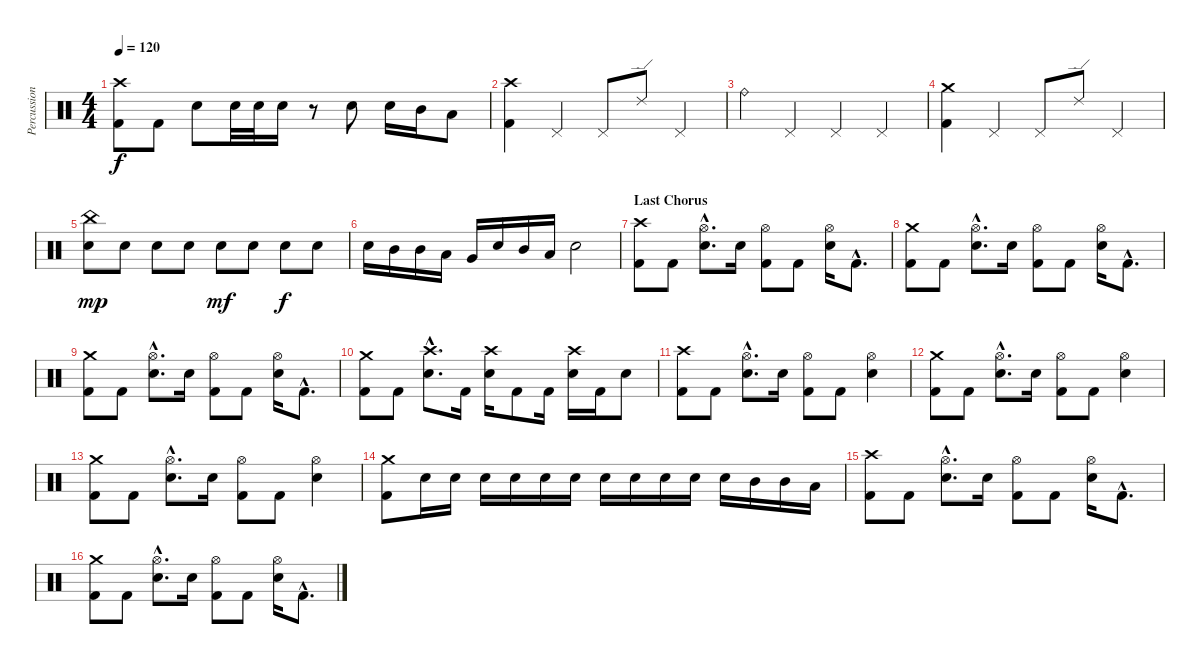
\track ("Percussion" "Percussion") {instrument percussion}
\staff {score}
\articulation defaults
\ts (4 4)
\tempo 120
\clef neutral
\ks c
("Crash high (hit)" "Kick (hit) 2").8{dy f} "Kick (hit) 2".8 "Snare (hit) 2".8 "Snare (hit) 2".32 "Snare (hit) 2".32 "Snare (hit) 2".16 r.8 "Snare (hit) 2".8 "Snare (hit) 2".16 "Mid Tom (hit)".16 "Low Tom (hit)".8 |
("Crash high (hit)" "Kick (hit) 2").4 "Pedal Hi-Hat (hit)".4 "Pedal Hi-Hat (hit)".8 "Ride (edge) 2".8 "Pedal Hi-Hat (hit)".4 |
"Ride (bell)".4 "Pedal Hi-Hat (hit)".4 "Pedal Hi-Hat (hit)".4 "Pedal Hi-Hat (hit)".4 |
("Crash medium (hit)" "Kick (hit) 2").4 "Pedal Hi-Hat (hit)".4 "Pedal Hi-Hat (hit)".8 "Ride (edge) 2".8 "Pedal Hi-Hat (hit)".4 |
("China (hit)" "Snare (hit) 2").8{dy mp} "Snare (hit) 2".8 "Snare (hit) 2".8 "Snare (hit) 2".8 "Snare (hit) 2".8{dy mf} "Snare (hit) 2".8 "Snare (hit) 2".8{dy f} "Snare (hit) 2".8 |
"Snare (hit) 2".16 "Mid Tom (hit)".16 "Mid Tom (hit)".16 "Low Tom (hit)".16 "Very Low Tom (hit)".16 "Snare (hit) 2".16 "Mid Tom (hit)".16 "Low Tom (hit)".16 "Snare (hit) 2".2 |
\section ("" "Last Chorus")
("Crash high (hit)" "Kick (hit) 2").8 "Kick (hit) 2".8 ("Hi-Hat (open)"{hac} "Snare (hit) 2"{hac}).8{d} "Snare (hit) 2".16 ("Hi-Hat (open)" "Kick (hit) 2").8 "Kick (hit) 2".8 ("Hi-Hat (open)" "Snare (hit) 2").16 "Kick (hit) 2"{hac}.8{d} |
("Crash medium (hit)" "Kick (hit) 2").8 "Kick (hit) 2".8 ("Hi-Hat (open)"{hac} "Snare (hit) 2"{hac}).8{d} "Snare (hit) 2".16 ("Hi-Hat (open)" "Kick (hit) 2").8 "Kick (hit) 2".8 ("Hi-Hat (open)" "Snare (hit) 2").16 "Kick (hit) 2"{hac}.8{d} |
("Crash medium (hit)" "Kick (hit) 2").8 "Kick (hit) 2".8 ("Hi-Hat (open)"{hac} "Snare (hit) 2"{hac}).8{d} "Snare (hit) 2".16 ("Hi-Hat (open)" "Kick (hit) 2").8 "Kick (hit) 2".8 ("Hi-Hat (open)" "Snare (hit) 2").16 "Kick (hit) 2"{hac}.8{d} |
("Crash medium (hit)" "Kick (hit) 2").8 "Kick (hit) 2".8 ("Crash high (hit)"{hac} "Snare (hit) 2"{hac}).8{d} "Kick (hit) 2".16 ("Crash high (hit)" "Snare (hit) 2").16 "Kick (hit) 2".8 "Kick (hit) 2".16 ("Crash high (hit)" "Snare (hit) 2").16 "Kick (hit) 2".16 "Snare (hit) 2".8 |
("Crash high (hit)" "Kick (hit) 2").8 "Kick (hit) 2".8 ("Hi-Hat (open)"{hac} "Snare (hit) 2"{hac}).8{d} "Snare (hit) 2".16 ("Hi-Hat (open)" "Kick (hit) 2").8 "Kick (hit) 2".8 ("Hi-Hat (open)" "Snare (hit) 2").4 |
("Crash medium (hit)" "Kick (hit) 2").8 "Kick (hit) 2".8 ("Hi-Hat (open)"{hac} "Snare (hit) 2"{hac}).8{d} "Snare (hit) 2".16 ("Hi-Hat (open)" "Kick (hit) 2").8 "Kick (hit) 2".8 ("Hi-Hat (open)" "Snare (hit) 2").4 |
("Crash medium (hit)" "Kick (hit) 2").8 "Kick (hit) 2".8 ("Hi-Hat (open)"{hac} "Snare (hit) 2"{hac}).8{d} "Snare (hit) 2".16 ("Hi-Hat (open)" "Kick (hit) 2").8 "Kick (hit) 2".8 ("Hi-Hat (open)" "Snare (hit) 2").4 |
("Crash medium (hit)" "Kick (hit) 2").8 "Snare (hit) 2".16 "Snare (hit) 2".16 "Snare (hit) 2".16 "Snare (hit) 2".16 "Snare (hit) 2".16 "Snare (hit) 2".16 "Snare (hit) 2".16 "Snare (hit) 2".16 "Snare (hit) 2".16 "Snare (hit) 2".16 "Snare (hit) 2".16 "Mid Tom (hit)".16 "Mid Tom (hit)".16 "Low Tom (hit)".16 |
("Crash high (hit)" "Kick (hit) 2").8 "Kick (hit) 2".8 ("Hi-Hat (open)"{hac} "Snare (hit) 2"{hac}).8{d} "Snare (hit) 2".16 ("Hi-Hat (open)" "Kick (hit) 2").8 "Kick (hit) 2".8 ("Hi-Hat (open)" "Snare (hit) 2").16 "Kick (hit) 2"{hac}.8{d} |
("Crash medium (hit)" "Kick (hit) 2").8 "Kick (hit) 2".8 ("Hi-Hat (open)"{hac} "Snare (hit) 2"{hac}).8{d} "Snare (hit) 2".16 ("Hi-Hat (open)" "Kick (hit) 2").8 "Kick (hit) 2".8 ("Hi-Hat (open)" "Snare (hit) 2").16 "Kick (hit) 2"{hac}.8{d}
